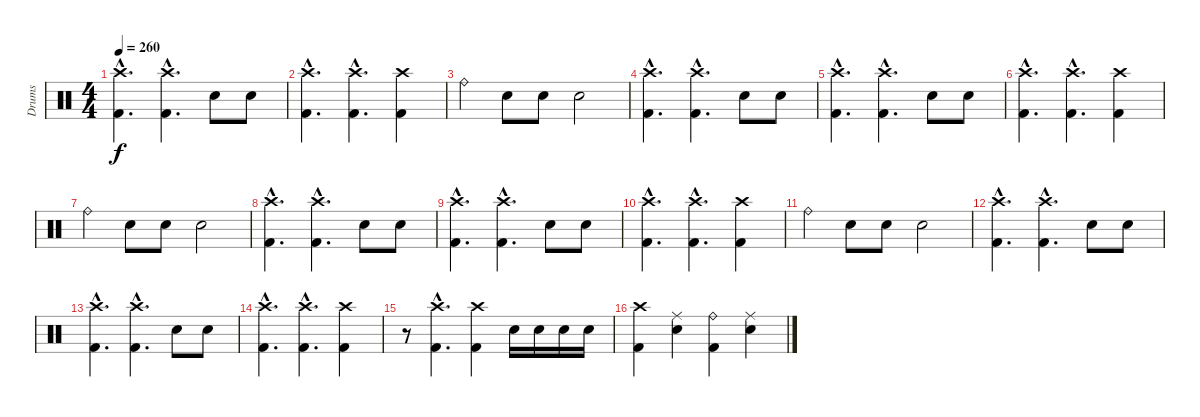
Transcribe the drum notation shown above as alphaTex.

\track ("Drums" "Drums") {instrument percussion}
\staff {score}
\articulation defaults
\ts (4 4)
\tempo 260
\clef neutral
\ks c
("Crash high (hit)"{hac} "Kick (hit) 2"{hac}).4{d dy f} ("Crash high (hit)"{hac} "Kick (hit) 2"{hac}).4{d} "Electric Snare (hit)".8 "Electric Snare (hit)".8 |
("Crash high (hit)"{hac} "Kick (hit) 2"{hac}).4{d} ("Crash high (hit)"{hac} "Kick (hit) 2"{hac}).4{d} ("Crash high (hit)" "Kick (hit) 2").4 |
"Ride (bell)".4 "Electric Snare (hit)".8 "Electric Snare (hit)".8 "Electric Snare (hit)".2 |
("Crash high (hit)"{hac} "Kick (hit) 2"{hac}).4{d} ("Crash high (hit)"{hac} "Kick (hit) 2"{hac}).4{d} "Electric Snare (hit)".8 "Electric Snare (hit)".8 |
("Crash high (hit)"{hac} "Kick (hit) 2"{hac}).4{d} ("Crash high (hit)"{hac} "Kick (hit) 2"{hac}).4{d} "Electric Snare (hit)".8 "Electric Snare (hit)".8 |
("Crash high (hit)"{hac} "Kick (hit) 2"{hac}).4{d} ("Crash high (hit)"{hac} "Kick (hit) 2"{hac}).4{d} ("Crash high (hit)" "Kick (hit) 2").4 |
"Ride (bell)".4 "Electric Snare (hit)".8 "Electric Snare (hit)".8 "Electric Snare (hit)".2 |
("Crash high (hit)"{hac} "Kick (hit) 2"{hac}).4{d} ("Crash high (hit)"{hac} "Kick (hit) 2"{hac}).4{d} "Electric Snare (hit)".8 "Electric Snare (hit)".8 |
("Crash high (hit)"{hac} "Kick (hit) 2"{hac}).4{d} ("Crash high (hit)"{hac} "Kick (hit) 2"{hac}).4{d} "Electric Snare (hit)".8 "Electric Snare (hit)".8 |
("Crash high (hit)"{hac} "Kick (hit) 2"{hac}).4{d} ("Crash high (hit)"{hac} "Kick (hit) 2"{hac}).4{d} ("Crash high (hit)" "Kick (hit) 2").4 |
"Ride (bell)".4 "Electric Snare (hit)".8 "Electric Snare (hit)".8 "Electric Snare (hit)".2 |
("Crash high (hit)"{hac} "Kick (hit) 2"{hac}).4{d} ("Crash high (hit)"{hac} "Kick (hit) 2"{hac}).4{d} "Electric Snare (hit)".8 "Electric Snare (hit)".8 |
("Crash high (hit)"{hac} "Kick (hit) 2"{hac}).4{d} ("Crash high (hit)"{hac} "Kick (hit) 2"{hac}).4{d} "Electric Snare (hit)".8 "Electric Snare (hit)".8 |
("Crash high (hit)"{hac} "Kick (hit) 2"{hac}).4{d} ("Crash high (hit)"{hac} "Kick (hit) 2"{hac}).4{d} ("Crash high (hit)" "Kick (hit) 2").4 |
r.8 ("Crash high (hit)"{hac} "Kick (hit) 2"{hac}).4{d} ("Crash high (hit)" "Kick (hit) 2").4 "Electric Snare (hit)".16 "Electric Snare (hit)".16 "Electric Snare (hit)".16 "Electric Snare (hit)".16 |
("Crash high (hit)" "Kick (hit) 2").4 ("Ride (middle)" "Electric Snare (hit)").4 ("Ride (bell)" "Kick (hit) 2").4 ("Ride (middle)" "Electric Snare (hit)").4
